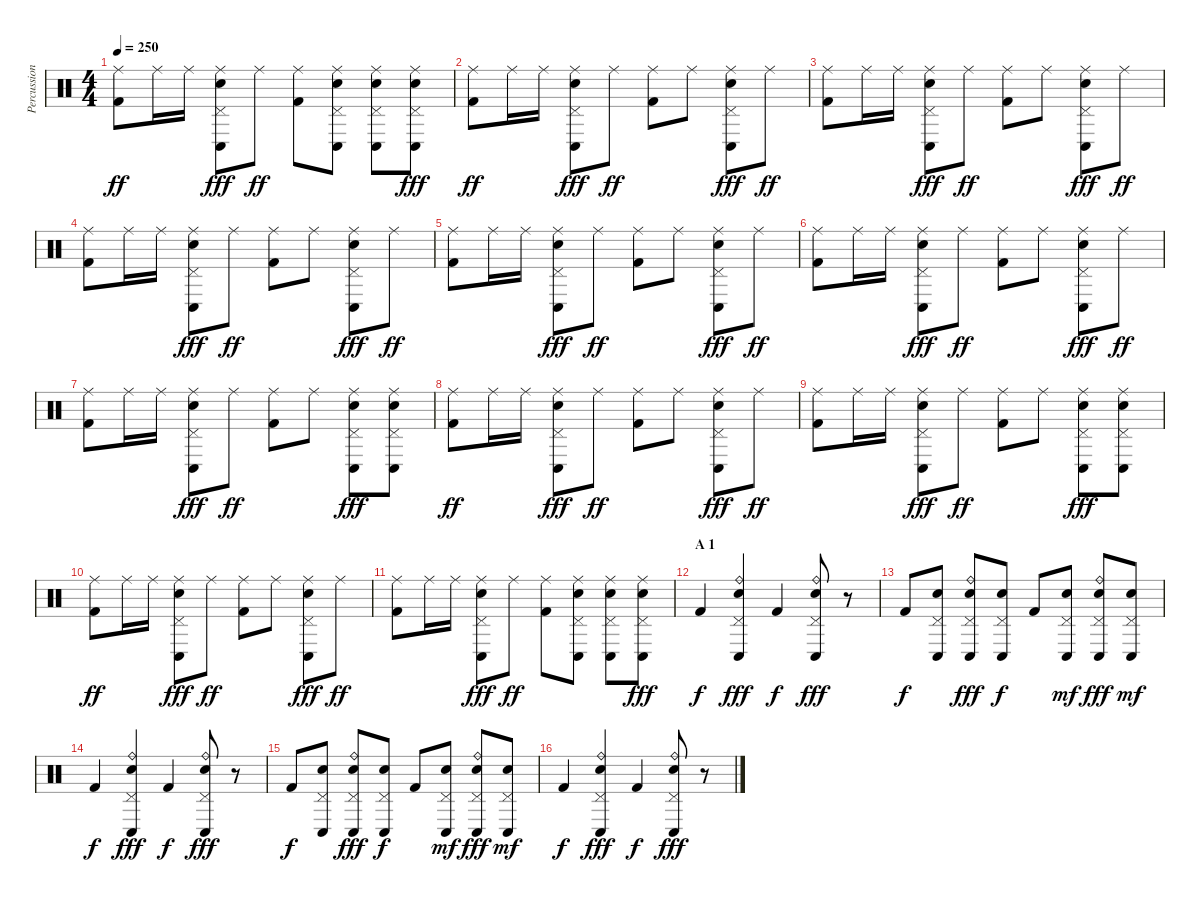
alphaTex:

\track ("Percussion" "Percussion") {instrument percussion}
\staff {score}
\articulation defaults
\ts (4 4)
\tempo 250
\clef neutral
\ks c
("Ride (middle)" "Kick (hit) 2").8{dy ff} "Ride (middle)".16 "Ride (middle)".16 ("Ride (middle)" "Pedal Hi-Hat (hit)" "Conga low (hit)" "Electric Snare (hit)").8{dy fff} "Ride (middle)".8{dy ff} ("Ride (middle)" "Kick (hit) 2").8 ("Ride (middle)" "Pedal Hi-Hat (hit)" "Conga low (hit)" "Electric Snare (hit)").8 ("Ride (middle)" "Pedal Hi-Hat (hit)" "Conga low (hit)" "Electric Snare (hit)").8 ("Ride (middle)" "Pedal Hi-Hat (hit)" "Conga low (hit)" "Electric Snare (hit)").8{dy fff} |
("Ride (middle)" "Kick (hit) 2").8{dy ff} "Ride (middle)".16 "Ride (middle)".16 ("Ride (middle)" "Pedal Hi-Hat (hit)" "Conga low (hit)" "Electric Snare (hit)").8{dy fff} "Ride (middle)".8{dy ff} ("Ride (middle)" "Kick (hit) 2").8 "Ride (middle)".8 ("Ride (middle)" "Pedal Hi-Hat (hit)" "Conga low (hit)" "Electric Snare (hit)").8{dy fff} "Ride (middle)".8{dy ff} |
("Ride (middle)" "Kick (hit) 2").8 "Ride (middle)".16 "Ride (middle)".16 ("Ride (middle)" "Pedal Hi-Hat (hit)" "Conga low (hit)" "Electric Snare (hit)").8{dy fff} "Ride (middle)".8{dy ff} ("Ride (middle)" "Kick (hit) 2").8 "Ride (middle)".8 ("Ride (middle)" "Pedal Hi-Hat (hit)" "Conga low (hit)" "Electric Snare (hit)").8{dy fff} "Ride (middle)".8{dy ff} |
("Ride (middle)" "Kick (hit) 2").8 "Ride (middle)".16 "Ride (middle)".16 ("Ride (middle)" "Pedal Hi-Hat (hit)" "Conga low (hit)" "Electric Snare (hit)").8{dy fff} "Ride (middle)".8{dy ff} ("Ride (middle)" "Kick (hit) 2").8 "Ride (middle)".8 ("Ride (middle)" "Pedal Hi-Hat (hit)" "Conga low (hit)" "Electric Snare (hit)").8{dy fff} "Ride (middle)".8{dy ff} |
("Ride (middle)" "Kick (hit) 2").8 "Ride (middle)".16 "Ride (middle)".16 ("Ride (middle)" "Pedal Hi-Hat (hit)" "Conga low (hit)" "Electric Snare (hit)").8{dy fff} "Ride (middle)".8{dy ff} ("Ride (middle)" "Kick (hit) 2").8 "Ride (middle)".8 ("Ride (middle)" "Pedal Hi-Hat (hit)" "Conga low (hit)" "Electric Snare (hit)").8{dy fff} "Ride (middle)".8{dy ff} |
("Ride (middle)" "Kick (hit) 2").8 "Ride (middle)".16 "Ride (middle)".16 ("Ride (middle)" "Pedal Hi-Hat (hit)" "Conga low (hit)" "Electric Snare (hit)").8{dy fff} "Ride (middle)".8{dy ff} ("Ride (middle)" "Kick (hit) 2").8 "Ride (middle)".8 ("Ride (middle)" "Pedal Hi-Hat (hit)" "Conga low (hit)" "Electric Snare (hit)").8{dy fff} "Ride (middle)".8{dy ff} |
("Ride (middle)" "Kick (hit) 2").8 "Ride (middle)".16 "Ride (middle)".16 ("Ride (middle)" "Pedal Hi-Hat (hit)" "Conga low (hit)" "Electric Snare (hit)").8{dy fff} "Ride (middle)".8{dy ff} ("Ride (middle)" "Kick (hit) 2").8 "Ride (middle)".8 ("Ride (middle)" "Pedal Hi-Hat (hit)" "Conga low (hit)" "Electric Snare (hit)").8{dy fff} ("Ride (middle)" "Pedal Hi-Hat (hit)" "Conga low (hit)" "Electric Snare (hit)").8 |
("Ride (middle)" "Kick (hit) 2").8{dy ff} "Ride (middle)".16 "Ride (middle)".16 ("Ride (middle)" "Pedal Hi-Hat (hit)" "Conga low (hit)" "Electric Snare (hit)").8{dy fff} "Ride (middle)".8{dy ff} ("Ride (middle)" "Kick (hit) 2").8 "Ride (middle)".8 ("Ride (middle)" "Pedal Hi-Hat (hit)" "Conga low (hit)" "Electric Snare (hit)").8{dy fff} "Ride (middle)".8{dy ff} |
("Ride (middle)" "Kick (hit) 2").8 "Ride (middle)".16 "Ride (middle)".16 ("Ride (middle)" "Pedal Hi-Hat (hit)" "Conga low (hit)" "Electric Snare (hit)").8{dy fff} "Ride (middle)".8{dy ff} ("Ride (middle)" "Kick (hit) 2").8 "Ride (middle)".8 ("Ride (middle)" "Pedal Hi-Hat (hit)" "Conga low (hit)" "Electric Snare (hit)").8{dy fff} ("Ride (middle)" "Pedal Hi-Hat (hit)" "Conga low (hit)" "Electric Snare (hit)").8 |
("Ride (middle)" "Kick (hit) 2").8{dy ff} "Ride (middle)".16 "Ride (middle)".16 ("Ride (middle)" "Pedal Hi-Hat (hit)" "Conga low (hit)" "Electric Snare (hit)").8{dy fff} "Ride (middle)".8{dy ff} ("Ride (middle)" "Kick (hit) 2").8 "Ride (middle)".8 ("Ride (middle)" "Pedal Hi-Hat (hit)" "Conga low (hit)" "Electric Snare (hit)").8{dy fff} "Ride (middle)".8{dy ff} |
("Ride (middle)" "Kick (hit) 2").8 "Ride (middle)".16 "Ride (middle)".16 ("Ride (middle)" "Pedal Hi-Hat (hit)" "Conga low (hit)" "Electric Snare (hit)").8{dy fff} "Ride (middle)".8{dy ff} ("Ride (middle)" "Kick (hit) 2").8 ("Ride (middle)" "Pedal Hi-Hat (hit)" "Conga low (hit)" "Electric Snare (hit)").8 ("Ride (middle)" "Pedal Hi-Hat (hit)" "Conga low (hit)" "Electric Snare (hit)").8 ("Ride (middle)" "Pedal Hi-Hat (hit)" "Conga low (hit)" "Electric Snare (hit)").8{dy fff} |
\section ("" "A 1")
"Kick (hit) 2".4{dy f} ("Ride (bell)" "Pedal Hi-Hat (hit)" "Conga low (hit)" "Electric Snare (hit)").4{dy fff} "Kick (hit) 2".4{dy f} ("Ride (bell)" "Pedal Hi-Hat (hit)" "Conga low (hit)" "Electric Snare (hit)").8{dy fff} r.8 |
"Kick (hit) 2".8{dy f} ("Pedal Hi-Hat (hit)" "Conga low (hit)" "Electric Snare (hit)").8 ("Ride (bell)" "Pedal Hi-Hat (hit)" "Conga low (hit)" "Electric Snare (hit)").8{dy fff} ("Pedal Hi-Hat (hit)" "Conga low (hit)" "Electric Snare (hit)").8{dy f} "Kick (hit) 2".8 ("Pedal Hi-Hat (hit)" "Conga low (hit)" "Electric Snare (hit)").8{dy mf} ("Ride (bell)" "Pedal Hi-Hat (hit)" "Conga low (hit)" "Electric Snare (hit)").8{dy fff} ("Pedal Hi-Hat (hit)" "Conga low (hit)" "Electric Snare (hit)").8{dy mf} |
"Kick (hit) 2".4{dy f} ("Ride (bell)" "Pedal Hi-Hat (hit)" "Conga low (hit)" "Electric Snare (hit)").4{dy fff} "Kick (hit) 2".4{dy f} ("Ride (bell)" "Pedal Hi-Hat (hit)" "Conga low (hit)" "Electric Snare (hit)").8{dy fff} r.8 |
"Kick (hit) 2".8{dy f} ("Pedal Hi-Hat (hit)" "Conga low (hit)" "Electric Snare (hit)").8 ("Ride (bell)" "Pedal Hi-Hat (hit)" "Conga low (hit)" "Electric Snare (hit)").8{dy fff} ("Pedal Hi-Hat (hit)" "Conga low (hit)" "Electric Snare (hit)").8{dy f} "Kick (hit) 2".8 ("Pedal Hi-Hat (hit)" "Conga low (hit)" "Electric Snare (hit)").8{dy mf} ("Ride (bell)" "Pedal Hi-Hat (hit)" "Conga low (hit)" "Electric Snare (hit)").8{dy fff} ("Pedal Hi-Hat (hit)" "Conga low (hit)" "Electric Snare (hit)").8{dy mf} |
"Kick (hit) 2".4{dy f} ("Ride (bell)" "Pedal Hi-Hat (hit)" "Conga low (hit)" "Electric Snare (hit)").4{dy fff} "Kick (hit) 2".4{dy f} ("Ride (bell)" "Pedal Hi-Hat (hit)" "Conga low (hit)" "Electric Snare (hit)").8{dy fff} r.8
